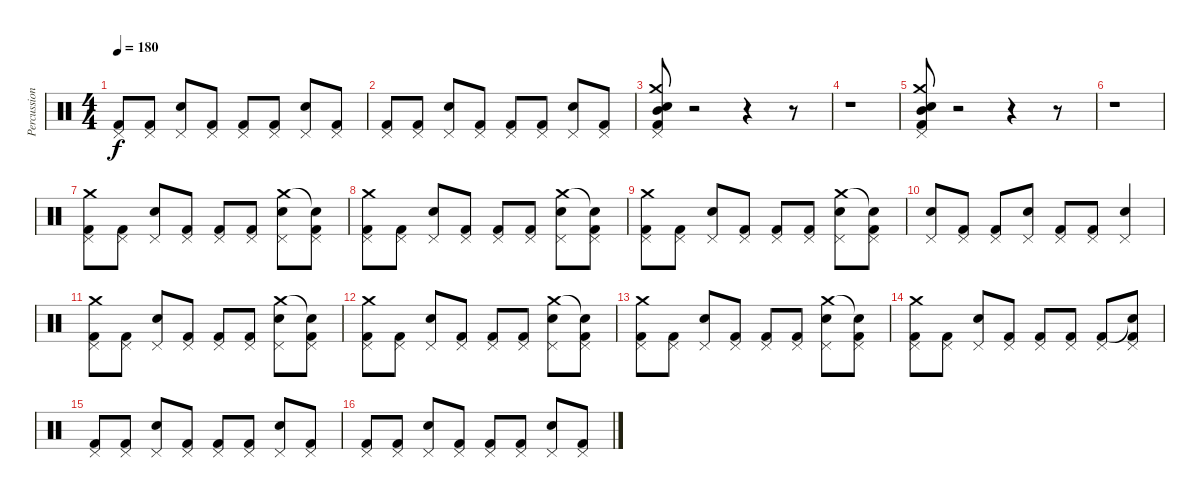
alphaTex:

\track ("Percussion" "Percussion") {instrument percussion}
\staff {score}
\articulation defaults
\ts (4 4)
\tempo 180
\clef neutral
\ks c
("Pedal Hi-Hat (hit)" "Kick (hit) 2").8{dy f} ("Pedal Hi-Hat (hit)" "Kick (hit) 2").8 ("Pedal Hi-Hat (hit)" "Snare (hit) 2").8 ("Pedal Hi-Hat (hit)" "Kick (hit) 2").8 ("Pedal Hi-Hat (hit)" "Kick (hit) 2").8 ("Pedal Hi-Hat (hit)" "Kick (hit) 2").8 ("Pedal Hi-Hat (hit)" "Snare (hit) 2").8 ("Pedal Hi-Hat (hit)" "Kick (hit) 2").8 |
("Pedal Hi-Hat (hit)" "Kick (hit) 2").8 ("Pedal Hi-Hat (hit)" "Kick (hit) 2").8 ("Pedal Hi-Hat (hit)" "Snare (hit) 2").8 ("Pedal Hi-Hat (hit)" "Kick (hit) 2").8 ("Pedal Hi-Hat (hit)" "Kick (hit) 2").8 ("Pedal Hi-Hat (hit)" "Kick (hit) 2").8 ("Pedal Hi-Hat (hit)" "Snare (hit) 2").8 ("Pedal Hi-Hat (hit)" "Kick (hit) 2").8 |
("Pedal Hi-Hat (hit)" "Crash medium (hit)" "Mid Tom (hit)" "Kick (hit) 2" "Snare (hit) 2").8 r.2 r.4 r.8 |
r.1 |
("Pedal Hi-Hat (hit)" "Crash medium (hit)" "Mid Tom (hit)" "Kick (hit) 2" "Snare (hit) 2").8 r.2 r.4 r.8 |
r.1 |
("Pedal Hi-Hat (hit)" "Crash medium (hit)" "Kick (hit) 2").8 ("Pedal Hi-Hat (hit)" "Kick (hit) 2").8 ("Pedal Hi-Hat (hit)" "Snare (hit) 2").8 ("Pedal Hi-Hat (hit)" "Kick (hit) 2").8 ("Pedal Hi-Hat (hit)" "Kick (hit) 2").8 ("Pedal Hi-Hat (hit)" "Kick (hit) 2").8 ("Pedal Hi-Hat (hit)" "Crash medium (hit)" "Snare (hit) 2").8 ("Pedal Hi-Hat (hit)" "Snare (hit)"{t} "Kick (hit) 2").8 |
("Pedal Hi-Hat (hit)" "Crash medium (hit)" "Kick (hit) 2").8 ("Pedal Hi-Hat (hit)" "Kick (hit) 2").8 ("Pedal Hi-Hat (hit)" "Snare (hit) 2").8 ("Pedal Hi-Hat (hit)" "Kick (hit) 2").8 ("Pedal Hi-Hat (hit)" "Kick (hit) 2").8 ("Pedal Hi-Hat (hit)" "Kick (hit) 2").8 ("Pedal Hi-Hat (hit)" "Crash medium (hit)" "Snare (hit) 2").8 ("Pedal Hi-Hat (hit)" "Snare (hit)"{t} "Kick (hit) 2").8 |
("Pedal Hi-Hat (hit)" "Crash medium (hit)" "Kick (hit) 2").8 ("Pedal Hi-Hat (hit)" "Kick (hit) 2").8 ("Pedal Hi-Hat (hit)" "Snare (hit) 2").8 ("Pedal Hi-Hat (hit)" "Kick (hit) 2").8 ("Pedal Hi-Hat (hit)" "Kick (hit) 2").8 ("Pedal Hi-Hat (hit)" "Kick (hit) 2").8 ("Pedal Hi-Hat (hit)" "Crash medium (hit)" "Snare (hit) 2").8 ("Pedal Hi-Hat (hit)" "Snare (hit)"{t} "Kick (hit) 2").8 |
("Pedal Hi-Hat (hit)" "Snare (hit) 2").8 ("Pedal Hi-Hat (hit)" "Kick (hit) 2").8 ("Pedal Hi-Hat (hit)" "Kick (hit) 2").8 ("Pedal Hi-Hat (hit)" "Snare (hit) 2").8 ("Pedal Hi-Hat (hit)" "Kick (hit) 2").8 ("Pedal Hi-Hat (hit)" "Kick (hit) 2").8 ("Pedal Hi-Hat (hit)" "Snare (hit) 2").4 |
("Pedal Hi-Hat (hit)" "Crash medium (hit)" "Kick (hit) 2").8 ("Pedal Hi-Hat (hit)" "Kick (hit) 2").8 ("Pedal Hi-Hat (hit)" "Snare (hit) 2").8 ("Pedal Hi-Hat (hit)" "Kick (hit) 2").8 ("Pedal Hi-Hat (hit)" "Kick (hit) 2").8 ("Pedal Hi-Hat (hit)" "Kick (hit) 2").8 ("Pedal Hi-Hat (hit)" "Crash medium (hit)" "Snare (hit) 2").8 ("Pedal Hi-Hat (hit)" "Snare (hit)"{t} "Kick (hit) 2").8 |
("Pedal Hi-Hat (hit)" "Crash medium (hit)" "Kick (hit) 2").8 ("Pedal Hi-Hat (hit)" "Kick (hit) 2").8 ("Pedal Hi-Hat (hit)" "Snare (hit) 2").8 ("Pedal Hi-Hat (hit)" "Kick (hit) 2").8 ("Pedal Hi-Hat (hit)" "Kick (hit) 2").8 ("Pedal Hi-Hat (hit)" "Kick (hit) 2").8 ("Pedal Hi-Hat (hit)" "Crash medium (hit)" "Snare (hit) 2").8 ("Pedal Hi-Hat (hit)" "Snare (hit)"{t} "Kick (hit) 2").8 |
("Pedal Hi-Hat (hit)" "Crash medium (hit)" "Kick (hit) 2").8 ("Pedal Hi-Hat (hit)" "Kick (hit) 2").8 ("Pedal Hi-Hat (hit)" "Snare (hit) 2").8 ("Pedal Hi-Hat (hit)" "Kick (hit) 2").8 ("Pedal Hi-Hat (hit)" "Kick (hit) 2").8 ("Pedal Hi-Hat (hit)" "Kick (hit) 2").8 ("Pedal Hi-Hat (hit)" "Crash medium (hit)" "Snare (hit) 2").8 ("Pedal Hi-Hat (hit)" "Snare (hit)"{t} "Kick (hit) 2").8 |
("Pedal Hi-Hat (hit)" "Crash medium (hit)" "Kick (hit) 2").8 ("Pedal Hi-Hat (hit)" "Kick (hit) 2").8 ("Pedal Hi-Hat (hit)" "Snare (hit) 2").8 ("Pedal Hi-Hat (hit)" "Kick (hit) 2").8 ("Pedal Hi-Hat (hit)" "Kick (hit) 2").8 ("Pedal Hi-Hat (hit)" "Kick (hit) 2").8 ("Pedal Hi-Hat (hit)" "Kick (hit) 2").8 ("Pedal Hi-Hat (hit)" "Snare (hit)"{t} "Kick (hit) 2").8 |
("Pedal Hi-Hat (hit)" "Kick (hit) 2").8 ("Pedal Hi-Hat (hit)" "Kick (hit) 2").8 ("Pedal Hi-Hat (hit)" "Snare (hit) 2").8 ("Pedal Hi-Hat (hit)" "Kick (hit) 2").8 ("Pedal Hi-Hat (hit)" "Kick (hit) 2").8 ("Pedal Hi-Hat (hit)" "Kick (hit) 2").8 ("Pedal Hi-Hat (hit)" "Snare (hit) 2").8 ("Pedal Hi-Hat (hit)" "Kick (hit) 2").8 |
("Pedal Hi-Hat (hit)" "Kick (hit) 2").8 ("Pedal Hi-Hat (hit)" "Kick (hit) 2").8 ("Pedal Hi-Hat (hit)" "Snare (hit) 2").8 ("Pedal Hi-Hat (hit)" "Kick (hit) 2").8 ("Pedal Hi-Hat (hit)" "Kick (hit) 2").8 ("Pedal Hi-Hat (hit)" "Kick (hit) 2").8 ("Pedal Hi-Hat (hit)" "Snare (hit) 2").8 ("Pedal Hi-Hat (hit)" "Kick (hit) 2").8
